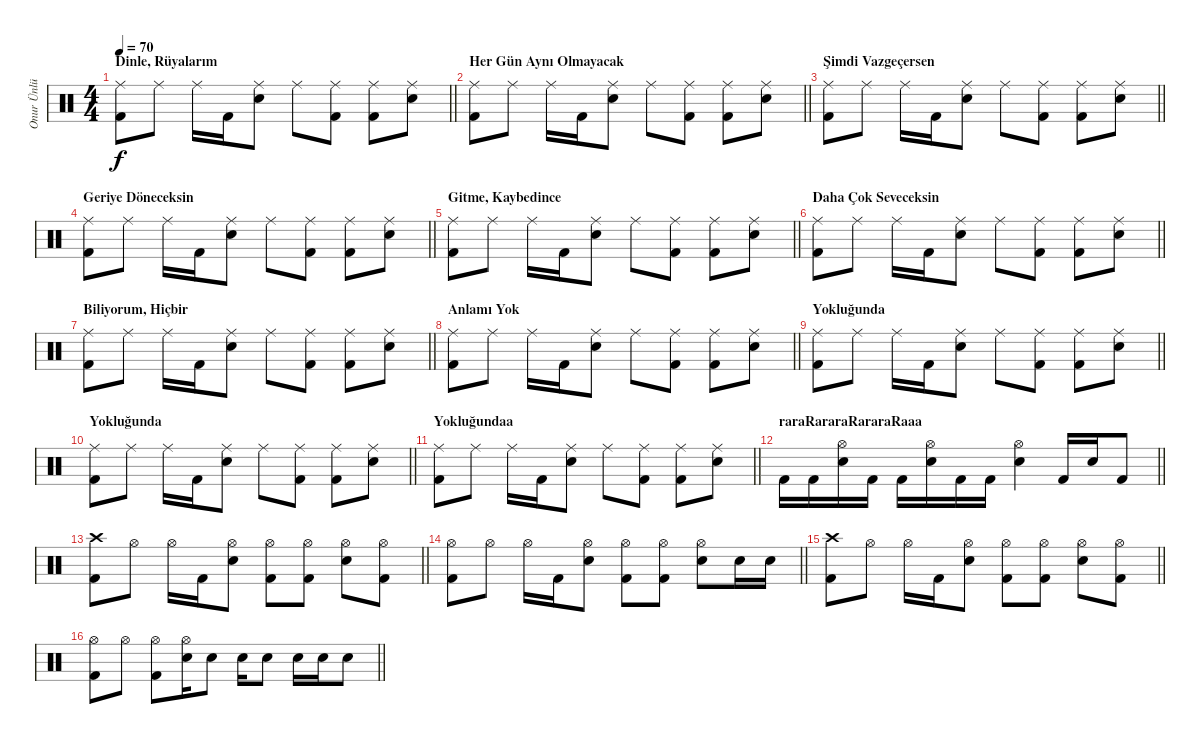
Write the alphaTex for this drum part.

\track ("Onur Ünlü - Davul" "Onur Ünlü ") {instrument percussion}
\staff {score}
\articulation defaults
\ts (4 4)
\section ("" "Dinle, Rüyalarım")
\tempo 70
\clef neutral
\barLineRight lightlight
\ks c
("Ride (middle)" "Kick (hit) 2").8{dy f} "Ride (middle)".8 "Ride (middle)".16 "Kick (hit) 2".16 ("Ride (middle)" "Snare (hit) 2").8 "Ride (middle)".8 ("Ride (middle)" "Kick (hit) 2").8 ("Ride (middle)" "Kick (hit) 2").8 ("Ride (middle)" "Snare (hit) 2").8 |
\section ("" "Her Gün Aynı Olmayacak")
\barLineRight lightlight
("Ride (middle)" "Kick (hit) 2").8 "Ride (middle)".8 "Ride (middle)".16 "Kick (hit) 2".16 ("Ride (middle)" "Snare (hit) 2").8 "Ride (middle)".8 ("Ride (middle)" "Kick (hit) 2").8 ("Ride (middle)" "Kick (hit) 2").8 ("Ride (middle)" "Snare (hit) 2").8 |
\section ("" "Şimdi Vazgeçersen")
\barLineRight lightlight
("Ride (middle)" "Kick (hit) 2").8 "Ride (middle)".8 "Ride (middle)".16 "Kick (hit) 2".16 ("Ride (middle)" "Snare (hit) 2").8 "Ride (middle)".8 ("Ride (middle)" "Kick (hit) 2").8 ("Ride (middle)" "Kick (hit) 2").8 ("Ride (middle)" "Snare (hit) 2").8 |
\section ("" "Geriye Döneceksin")
\barLineRight lightlight
("Ride (middle)" "Kick (hit) 2").8 "Ride (middle)".8 "Ride (middle)".16 "Kick (hit) 2".16 ("Ride (middle)" "Snare (hit) 2").8 "Ride (middle)".8 ("Ride (middle)" "Kick (hit) 2").8 ("Ride (middle)" "Kick (hit) 2").8 ("Ride (middle)" "Snare (hit) 2").8 |
\section ("" "Gitme, Kaybedince")
\barLineRight lightlight
("Ride (middle)" "Kick (hit) 2").8 "Ride (middle)".8 "Ride (middle)".16 "Kick (hit) 2".16 ("Ride (middle)" "Snare (hit) 2").8 "Ride (middle)".8 ("Ride (middle)" "Kick (hit) 2").8 ("Ride (middle)" "Kick (hit) 2").8 ("Ride (middle)" "Snare (hit) 2").8 |
\section ("" "Daha Çok Seveceksin")
\barLineRight lightlight
("Ride (middle)" "Kick (hit) 2").8 "Ride (middle)".8 "Ride (middle)".16 "Kick (hit) 2".16 ("Ride (middle)" "Snare (hit) 2").8 "Ride (middle)".8 ("Ride (middle)" "Kick (hit) 2").8 ("Ride (middle)" "Kick (hit) 2").8 ("Ride (middle)" "Snare (hit) 2").8 |
\section ("" "Biliyorum, Hiçbir")
\barLineRight lightlight
("Ride (middle)" "Kick (hit) 2").8 "Ride (middle)".8 "Ride (middle)".16 "Kick (hit) 2".16 ("Ride (middle)" "Snare (hit) 2").8 "Ride (middle)".8 ("Ride (middle)" "Kick (hit) 2").8 ("Ride (middle)" "Kick (hit) 2").8 ("Ride (middle)" "Snare (hit) 2").8 |
\section ("" "Anlamı Yok")
\barLineRight lightlight
("Ride (middle)" "Kick (hit) 2").8 "Ride (middle)".8 "Ride (middle)".16 "Kick (hit) 2".16 ("Ride (middle)" "Snare (hit) 2").8 "Ride (middle)".8 ("Ride (middle)" "Kick (hit) 2").8 ("Ride (middle)" "Kick (hit) 2").8 ("Ride (middle)" "Snare (hit) 2").8 |
\section ("" "Yokluğunda")
\barLineRight lightlight
("Ride (middle)" "Kick (hit) 2").8 "Ride (middle)".8 "Ride (middle)".16 "Kick (hit) 2".16 ("Ride (middle)" "Snare (hit) 2").8 "Ride (middle)".8 ("Ride (middle)" "Kick (hit) 2").8 ("Ride (middle)" "Kick (hit) 2").8 ("Ride (middle)" "Snare (hit) 2").8 |
\section ("" "Yokluğunda")
\barLineRight lightlight
("Ride (middle)" "Kick (hit) 2").8 "Ride (middle)".8 "Ride (middle)".16 "Kick (hit) 2".16 ("Ride (middle)" "Snare (hit) 2").8 "Ride (middle)".8 ("Ride (middle)" "Kick (hit) 2").8 ("Ride (middle)" "Kick (hit) 2").8 ("Ride (middle)" "Snare (hit) 2").8 |
\section ("" "Yokluğundaa")
\barLineRight lightlight
("Ride (middle)" "Kick (hit) 2").8 "Ride (middle)".8 "Ride (middle)".16 "Kick (hit) 2".16 ("Ride (middle)" "Snare (hit) 2").8 "Ride (middle)".8 ("Ride (middle)" "Kick (hit) 2").8 ("Ride (middle)" "Kick (hit) 2").8 ("Ride (middle)" "Snare (hit) 2").8 |
\section ("" "raraRararaRararaRaaa")
\barLineRight lightlight "Kick (hit) 2".16 "Kick (hit) 2".16
("Hi-Hat (open)" "Snare (hit) 2").16 "Kick (hit) 2".16 "Kick (hit) 2".16 ("Hi-Hat (open)" "Snare (hit) 2").16 "Kick (hit) 2".16 "Kick (hit) 2".16 ("Hi-Hat (open)" "Snare (hit) 2").4 "Kick (hit) 2".16 "Snare (hit) 2".16 "Kick (hit) 2".8 |
\barLineRight lightlight
("Crash high (hit)" "Kick (hit) 2").8 "Hi-Hat (open)".8 "Hi-Hat (open)".16 "Kick (hit) 2".16 ("Hi-Hat (open)" "Snare (hit) 2").8 ("Hi-Hat (open)" "Kick (hit) 2").8 ("Hi-Hat (open)" "Kick (hit) 2").8 ("Hi-Hat (open)" "Snare (hit) 2").8 ("Hi-Hat (open)" "Kick (hit) 2").8 |
\barLineRight lightlight
("Hi-Hat (open)" "Kick (hit) 2").8 "Hi-Hat (open)".8 "Hi-Hat (open)".16 "Kick (hit) 2".16 ("Hi-Hat (open)" "Snare (hit) 2").8 ("Hi-Hat (open)" "Kick (hit) 2").8 ("Hi-Hat (open)" "Kick (hit) 2").8 ("Hi-Hat (open)" "Snare (hit) 2").8 "Snare (hit) 2".16 "Snare (hit) 2".16 |
\barLineRight lightlight
("Crash high (hit)" "Kick (hit) 2").8 "Hi-Hat (open)".8 "Hi-Hat (open)".16 "Kick (hit) 2".16 ("Hi-Hat (open)" "Snare (hit) 2").8 ("Hi-Hat (open)" "Kick (hit) 2").8 ("Hi-Hat (open)" "Kick (hit) 2").8 ("Hi-Hat (open)" "Snare (hit) 2").8 ("Hi-Hat (open)" "Kick (hit) 2").8 |
\barLineRight lightlight
("Hi-Hat (open)" "Kick (hit) 2").8 "Hi-Hat (open)".8 ("Hi-Hat (open)" "Kick (hit) 2").8 ("Hi-Hat (open)" "Snare (hit) 2").16 "Snare (hit) 2".8 "Snare (hit) 2".16 "Snare (hit) 2".8 "Snare (hit) 2".16 "Snare (hit) 2".16 "Snare (hit) 2".8
